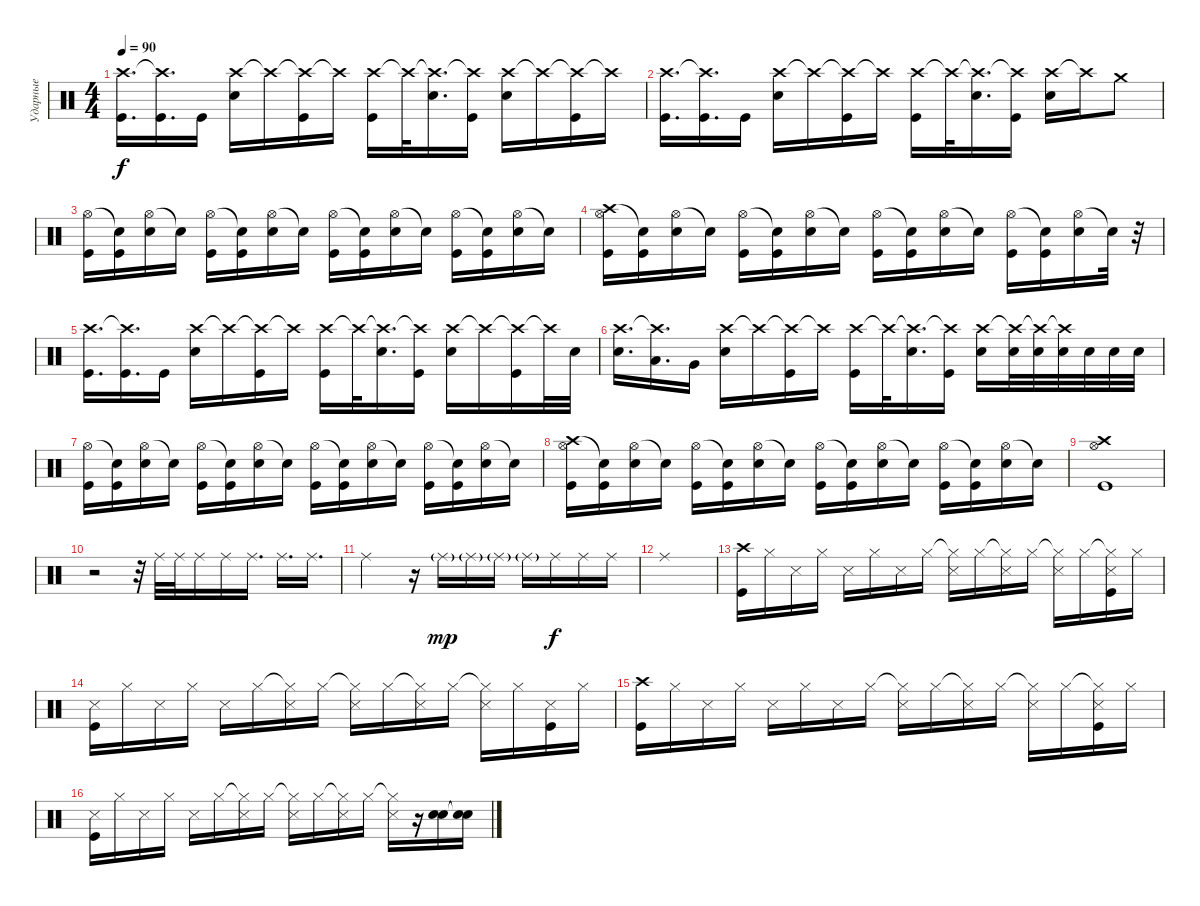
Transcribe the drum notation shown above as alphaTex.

\track ("Ударные" "Ударные") {instrument percussion}
\staff {score}
\articulation defaults
\ts (4 4)
\tempo 90
\clef neutral
\ks c
("Crash high (hit)" "Kick (hit)").16{d dy f} ("Crash high (hit)"{t} "Kick (hit)").16{d} "Kick (hit)".16 ("Crash high (hit)" "Electric Snare (hit)").16 "Crash high (hit)"{t}.16 ("Crash high (hit)"{t} "Kick (hit)").16 "Crash high (hit)"{t}.16 ("Crash high (hit)" "Kick (hit)").16 "Crash high (hit)"{t}.32 ("Crash high (hit)"{t} "Electric Snare (hit)").16{d} ("Crash high (hit)"{t} "Kick (hit)").16 ("Crash high (hit)" "Electric Snare (hit)").16 "Crash high (hit)"{t}.16 ("Crash high (hit)"{t} "Kick (hit)").16 "Crash high (hit)"{t}.16 |
("Crash high (hit)" "Kick (hit)").16{d} ("Crash high (hit)"{t} "Kick (hit)").16{d} "Kick (hit)".16 ("Crash high (hit)" "Electric Snare (hit)").16 "Crash high (hit)"{t}.16 ("Crash high (hit)"{t} "Kick (hit)").16 "Crash high (hit)"{t}.16 ("Crash high (hit)" "Kick (hit)").16 "Crash high (hit)"{t}.32 ("Crash high (hit)"{t} "Electric Snare (hit)").16{d} ("Crash high (hit)"{t} "Kick (hit)").16 ("Crash high (hit)" "Electric Snare (hit)").16 "Crash high (hit)"{t}.16 "Crash medium (hit)".8 |
("Hi-Hat (open)" "Kick (hit)").16 ("Snare (hit)"{t} "Kick (hit)").16 ("Hi-Hat (open)" "Electric Snare (hit)").16 "Snare (hit)"{t}.16 ("Hi-Hat (open)" "Kick (hit)").16 ("Snare (hit)"{t} "Kick (hit)").16 ("Hi-Hat (open)" "Electric Snare (hit)").16 "Snare (hit)"{t}.16 ("Hi-Hat (open)" "Kick (hit)").16 ("Snare (hit)"{t} "Kick (hit)").16 ("Hi-Hat (open)" "Electric Snare (hit)").16 "Snare (hit)"{t}.16 ("Hi-Hat (open)" "Kick (hit)").16 ("Snare (hit)"{t} "Kick (hit)").16 ("Hi-Hat (open)" "Electric Snare (hit)").16 "Snare (hit)"{t}.16 |
("Crash high (hit)" "Hi-Hat (open)" "Kick (hit)").16 ("Snare (hit)"{t} "Kick (hit)").16 ("Hi-Hat (open)" "Electric Snare (hit)").16 "Snare (hit)"{t}.16 ("Hi-Hat (open)" "Kick (hit)").16 ("Snare (hit)"{t} "Kick (hit)").16 ("Hi-Hat (open)" "Electric Snare (hit)").16 "Snare (hit)"{t}.16 ("Hi-Hat (open)" "Kick (hit)").16 ("Snare (hit)"{t} "Kick (hit)").16 ("Hi-Hat (open)" "Electric Snare (hit)").16 "Snare (hit)"{t}.16 ("Hi-Hat (open)" "Kick (hit)").16 ("Snare (hit)"{t} "Kick (hit)").16 ("Hi-Hat (open)" "Electric Snare (hit)").16 "Snare (hit)"{t}.32 r.32 |
("Crash high (hit)" "Kick (hit)").16{d} ("Crash high (hit)"{t} "Kick (hit)").16{d} "Kick (hit)".16 ("Crash high (hit)" "Electric Snare (hit)").16 "Crash high (hit)"{t}.16 ("Crash high (hit)"{t} "Kick (hit)").16 "Crash high (hit)"{t}.16 ("Crash high (hit)" "Kick (hit)").16 "Crash high (hit)"{t}.32 ("Crash high (hit)"{t} "Electric Snare (hit)").16{d} ("Crash high (hit)"{t} "Kick (hit)").16 ("Crash high (hit)" "Electric Snare (hit)").16 "Crash high (hit)"{t}.16 ("Crash high (hit)"{t} "Kick (hit)").16 "Crash high (hit)"{t}.32 "Electric Snare (hit)".32 |
("Crash high (hit)" "Electric Snare (hit)").16{d} ("Crash high (hit)"{t} "Low Tom (hit)").16{d} "Very Low Tom (hit)".16 ("Crash high (hit)" "Electric Snare (hit)").16 "Crash high (hit)"{t}.16 ("Crash high (hit)"{t} "Kick (hit)").16 "Crash high (hit)"{t}.16 ("Crash high (hit)" "Kick (hit)").16 "Crash high (hit)"{t}.32 ("Crash high (hit)"{t} "Electric Snare (hit)").16{d} ("Crash high (hit)"{t} "Kick (hit)").16 ("Crash high (hit)" "Electric Snare (hit)").16 ("Crash high (hit)"{t} "Electric Snare (hit)").32 ("Crash high (hit)"{t} "Electric Snare (hit)").32 ("Crash high (hit)"{t} "Electric Snare (hit)").32 "Electric Snare (hit)".32 "Electric Snare (hit)".32 "Electric Snare (hit)".32 |
("Hi-Hat (open)" "Kick (hit)").16 ("Snare (hit)"{t} "Kick (hit)").16 ("Hi-Hat (open)" "Electric Snare (hit)").16 "Snare (hit)"{t}.16 ("Hi-Hat (open)" "Kick (hit)").16 ("Snare (hit)"{t} "Kick (hit)").16 ("Hi-Hat (open)" "Electric Snare (hit)").16 "Snare (hit)"{t}.16 ("Hi-Hat (open)" "Kick (hit)").16 ("Snare (hit)"{t} "Kick (hit)").16 ("Hi-Hat (open)" "Electric Snare (hit)").16 "Snare (hit)"{t}.16 ("Hi-Hat (open)" "Kick (hit)").16 ("Snare (hit)"{t} "Kick (hit)").16 ("Hi-Hat (open)" "Electric Snare (hit)").16 "Snare (hit)"{t}.16 |
("Crash high (hit)" "Hi-Hat (open)" "Kick (hit)").16 ("Snare (hit)"{t} "Kick (hit)").16 ("Hi-Hat (open)" "Electric Snare (hit)").16 "Snare (hit)"{t}.16 ("Hi-Hat (open)" "Kick (hit)").16 ("Snare (hit)"{t} "Kick (hit)").16 ("Hi-Hat (open)" "Electric Snare (hit)").16 "Snare (hit)"{t}.16 ("Hi-Hat (open)" "Kick (hit)").16 ("Snare (hit)"{t} "Kick (hit)").16 ("Hi-Hat (open)" "Electric Snare (hit)").16 "Snare (hit)"{t}.16 ("Hi-Hat (open)" "Kick (hit)").16 ("Snare (hit)"{t} "Kick (hit)").16 ("Hi-Hat (open)" "Electric Snare (hit)").16 "Snare (hit)"{t}.16 |
("Crash high (hit)" "Hi-Hat (open)" "Kick (hit)").1 |
r.2 r.32 "Ride (middle)".32 "Ride (middle)".32 "Ride (middle)".16 "Ride (middle)".16 "Ride (middle)".16{d} "Ride (middle)".16{d} "Ride (middle)".16{d} |
"Ride (middle)".2 r.16 "Ride (middle)"{g}.16{dy mp} "Ride (middle)"{g}.16 "Ride (middle)"{g}.16 "Ride (middle)"{g}.16 "Ride (middle)".16{dy f} "Ride (middle)".16 "Ride (middle)".16 |
"Ride (middle)".1 |
("Crash high (hit)" "Kick (hit)").16 "Hi-Hat (closed)".16 "Snare (side stick) 3".16 "Hi-Hat (closed)".16 "Snare (side stick) 3".16 "Hi-Hat (closed)".16 "Snare (side stick) 3".16 "Hi-Hat (closed)".16 ("Hi-Hat (closed)"{t} "Snare (side stick) 3").16 "Hi-Hat (closed)".16 ("Hi-Hat (closed)"{t} "Snare (side stick) 3").16 "Hi-Hat (closed)".16 ("Hi-Hat (closed)"{t} "Snare (side stick) 3").16 "Hi-Hat (closed)".16 ("Hi-Hat (closed)"{t} "Snare (side stick) 3" "Kick (hit)").16 "Hi-Hat (closed)".16 |
("Snare (side stick) 3" "Kick (hit)").16 "Hi-Hat (closed)".16 "Snare (side stick) 3".16 "Hi-Hat (closed)".16 "Snare (side stick) 3".16 "Hi-Hat (closed)".16 ("Hi-Hat (closed)"{t} "Snare (side stick) 3").16 "Hi-Hat (closed)".16 ("Hi-Hat (closed)"{t} "Snare (side stick) 3").16 "Hi-Hat (closed)".16 ("Hi-Hat (closed)"{t} "Snare (side stick) 3").16 "Hi-Hat (closed)".16 ("Hi-Hat (closed)"{t} "Snare (side stick) 3").16 "Hi-Hat (closed)".16 ("Snare (side stick) 3" "Kick (hit)").16 "Hi-Hat (closed)".16 |
("Crash high (hit)" "Kick (hit)").16 "Hi-Hat (closed)".16 "Snare (side stick) 3".16 "Hi-Hat (closed)".16 "Snare (side stick) 3".16 "Hi-Hat (closed)".16 "Snare (side stick) 3".16 "Hi-Hat (closed)".16 ("Hi-Hat (closed)"{t} "Snare (side stick) 3").16 "Hi-Hat (closed)".16 ("Hi-Hat (closed)"{t} "Snare (side stick) 3").16 "Hi-Hat (closed)".16 ("Hi-Hat (closed)"{t} "Snare (side stick) 3").16 "Hi-Hat (closed)".16 ("Hi-Hat (closed)"{t} "Snare (side stick) 3" "Kick (hit)").16 "Hi-Hat (closed)".16 |
("Snare (side stick) 3" "Kick (hit)").16 "Hi-Hat (closed)".16 "Snare (side stick) 3".16 "Hi-Hat (closed)".16 "Snare (side stick) 3".16 "Hi-Hat (closed)".16 ("Hi-Hat (closed)"{t} "Snare (side stick) 3").16 "Hi-Hat (closed)".16 ("Hi-Hat (closed)"{t} "Snare (side stick) 3").16 "Hi-Hat (closed)".16 ("Hi-Hat (closed)"{t} "Snare (side stick) 3").16 "Hi-Hat (closed)".16 ("Hi-Hat (closed)"{t} "Snare (side stick) 3").16 r.16 ("Electric Snare (hit)" "Electric Snare (hit)").16 ("Snare (hit)"{t} "Snare (hit)"{t}).16
